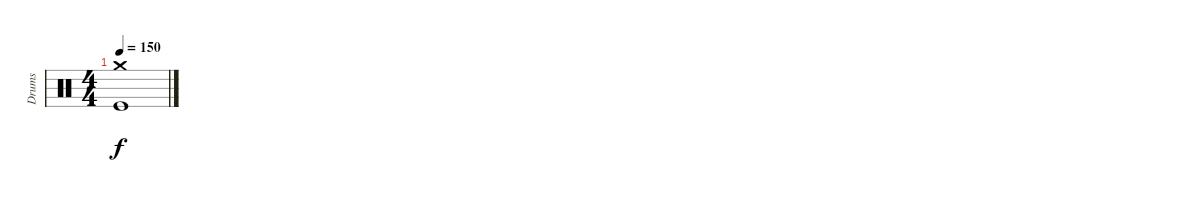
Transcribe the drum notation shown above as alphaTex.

\track ("Drums" "Drums") {instrument percussion}
\staff {score}
\articulation defaults
\ts (4 4)
\tempo 150
\clef neutral
\ks c
("Crash medium (hit)" "Kick (hit)").1{dy f}
